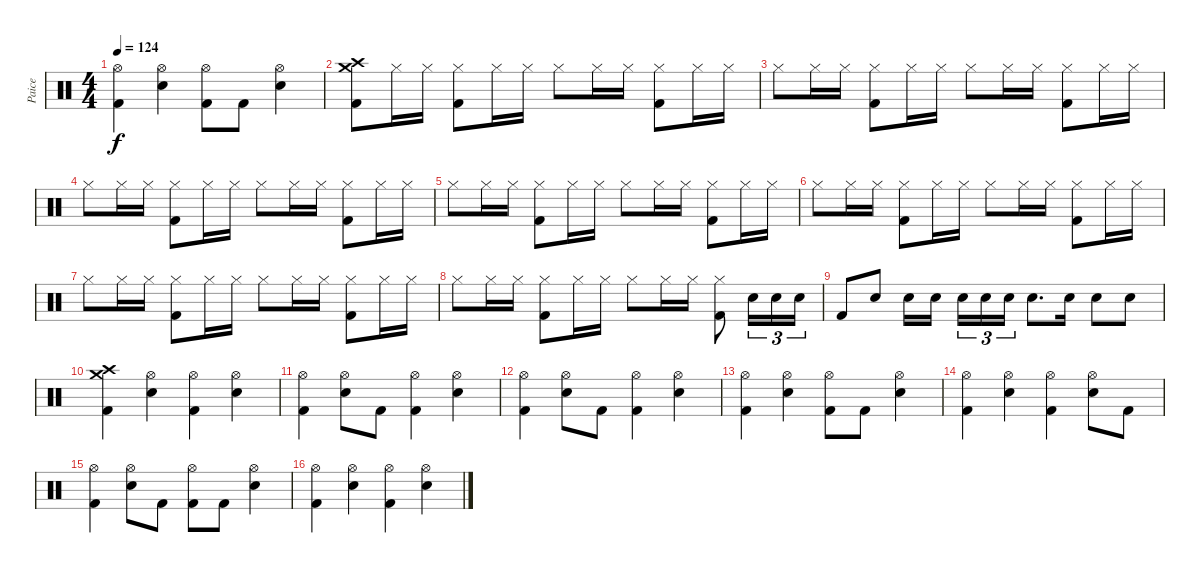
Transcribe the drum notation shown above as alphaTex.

\track ("Paice" "Paice") {instrument percussion}
\staff {score}
\articulation defaults
\ts (4 4)
\tempo 124
\clef neutral
\ks c
("Hi-Hat (open)" "Kick (hit) 2").4{dy f} ("Hi-Hat (open)" "Electric Snare (hit)").4 ("Hi-Hat (open)" "Kick (hit) 2").8 "Kick (hit) 2".8 ("Hi-Hat (open)" "Electric Snare (hit)").4 |
("Crash high (hit)" "Crash medium (hit)" "Kick (hit) 2").8 "Hi-Hat (closed)".16 "Hi-Hat (closed)".16 ("Hi-Hat (closed)" "Kick (hit) 2").8 "Hi-Hat (closed)".16 "Hi-Hat (closed)".16 "Hi-Hat (closed)".8 "Hi-Hat (closed)".16 "Hi-Hat (closed)".16 ("Hi-Hat (closed)" "Kick (hit) 2").8 "Hi-Hat (closed)".16 "Hi-Hat (closed)".16 |
"Hi-Hat (closed)".8 "Hi-Hat (closed)".16 "Hi-Hat (closed)".16 ("Hi-Hat (closed)" "Kick (hit) 2").8 "Hi-Hat (closed)".16 "Hi-Hat (closed)".16 "Hi-Hat (closed)".8 "Hi-Hat (closed)".16 "Hi-Hat (closed)".16 ("Hi-Hat (closed)" "Kick (hit) 2").8 "Hi-Hat (closed)".16 "Hi-Hat (closed)".16 |
"Hi-Hat (closed)".8 "Hi-Hat (closed)".16 "Hi-Hat (closed)".16 ("Hi-Hat (closed)" "Kick (hit) 2").8 "Hi-Hat (closed)".16 "Hi-Hat (closed)".16 "Hi-Hat (closed)".8 "Hi-Hat (closed)".16 "Hi-Hat (closed)".16 ("Hi-Hat (closed)" "Kick (hit) 2").8 "Hi-Hat (closed)".16 "Hi-Hat (closed)".16 |
"Hi-Hat (closed)".8 "Hi-Hat (closed)".16 "Hi-Hat (closed)".16 ("Hi-Hat (closed)" "Kick (hit) 2").8 "Hi-Hat (closed)".16 "Hi-Hat (closed)".16 "Hi-Hat (closed)".8 "Hi-Hat (closed)".16 "Hi-Hat (closed)".16 ("Hi-Hat (closed)" "Kick (hit) 2").8 "Hi-Hat (closed)".16 "Hi-Hat (closed)".16 |
"Hi-Hat (closed)".8 "Hi-Hat (closed)".16 "Hi-Hat (closed)".16 ("Hi-Hat (closed)" "Kick (hit) 2").8 "Hi-Hat (closed)".16 "Hi-Hat (closed)".16 "Hi-Hat (closed)".8 "Hi-Hat (closed)".16 "Hi-Hat (closed)".16 ("Hi-Hat (closed)" "Kick (hit) 2").8 "Hi-Hat (closed)".16 "Hi-Hat (closed)".16 |
"Hi-Hat (closed)".8 "Hi-Hat (closed)".16 "Hi-Hat (closed)".16 ("Hi-Hat (closed)" "Kick (hit) 2").8 "Hi-Hat (closed)".16 "Hi-Hat (closed)".16 "Hi-Hat (closed)".8 "Hi-Hat (closed)".16 "Hi-Hat (closed)".16 ("Hi-Hat (closed)" "Kick (hit) 2").8 "Hi-Hat (closed)".16 "Hi-Hat (closed)".16 |
"Hi-Hat (closed)".8 "Hi-Hat (closed)".16 "Hi-Hat (closed)".16 ("Hi-Hat (closed)" "Kick (hit) 2").8 "Hi-Hat (closed)".16 "Hi-Hat (closed)".16 "Hi-Hat (closed)".8 "Hi-Hat (closed)".16 "Hi-Hat (closed)".16 ("Hi-Hat (closed)" "Kick (hit) 2").8 "Electric Snare (hit)".16{tu (3 2)} "Electric Snare (hit)".16{tu (3 2)} "Electric Snare (hit)".16{tu (3 2)} |
"Kick (hit) 2".8 "Electric Snare (hit)".8 "Electric Snare (hit)".16 "Electric Snare (hit)".16 "Electric Snare (hit)".16{tu (3 2)} "Electric Snare (hit)".16{tu (3 2)} "Electric Snare (hit)".16{tu (3 2)} "Electric Snare (hit)".8{d} "Electric Snare (hit)".16 "Electric Snare (hit)".8 "Electric Snare (hit)".8 |
("Crash high (hit)" "Crash medium (hit)" "Kick (hit) 2").4 ("Hi-Hat (open)" "Electric Snare (hit)").4 ("Hi-Hat (open)" "Kick (hit) 2").4 ("Hi-Hat (open)" "Electric Snare (hit)").4 |
("Hi-Hat (open)" "Kick (hit) 2").4 ("Hi-Hat (open)" "Electric Snare (hit)").8 "Kick (hit) 2".8 ("Hi-Hat (open)" "Kick (hit) 2").4 ("Hi-Hat (open)" "Electric Snare (hit)").4 |
("Hi-Hat (open)" "Kick (hit) 2").4 ("Hi-Hat (open)" "Electric Snare (hit)").8 "Kick (hit) 2".8 ("Hi-Hat (open)" "Kick (hit) 2").4 ("Hi-Hat (open)" "Electric Snare (hit)").4 |
("Hi-Hat (open)" "Kick (hit) 2").4 ("Hi-Hat (open)" "Electric Snare (hit)").4 ("Hi-Hat (open)" "Kick (hit) 2").8 "Kick (hit) 2".8 ("Hi-Hat (open)" "Electric Snare (hit)").4 |
("Hi-Hat (open)" "Kick (hit) 2").4 ("Hi-Hat (open)" "Electric Snare (hit)").4 ("Hi-Hat (open)" "Kick (hit) 2").4 ("Hi-Hat (open)" "Electric Snare (hit)").8 "Kick (hit) 2".8 |
("Hi-Hat (open)" "Kick (hit) 2").4 ("Hi-Hat (open)" "Electric Snare (hit)").8 "Kick (hit) 2".8 ("Hi-Hat (open)" "Kick (hit) 2").8 "Kick (hit) 2".8 ("Hi-Hat (open)" "Electric Snare (hit)").4 |
("Hi-Hat (open)" "Kick (hit) 2").4 ("Hi-Hat (open)" "Electric Snare (hit)").4 ("Hi-Hat (open)" "Kick (hit) 2").4 ("Hi-Hat (open)" "Electric Snare (hit)").4
